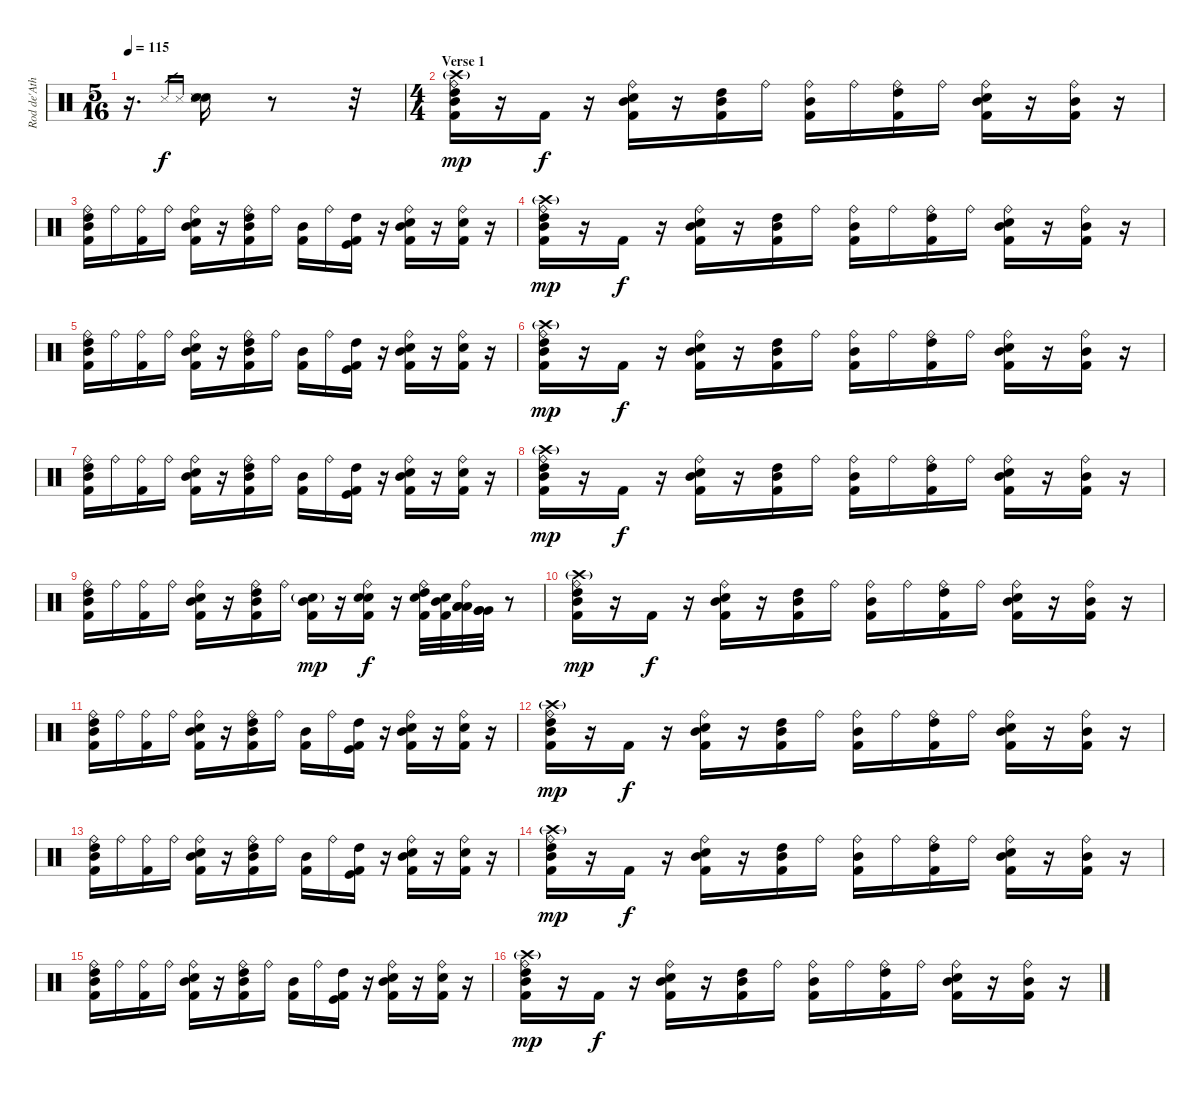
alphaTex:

\track ("Rod de'Ath" "Rod de'Ath") {instrument percussion}
\staff {score}
\articulation defaults
\ts (5 16)
\tempo 115
\clef neutral
\ks c
r.16{d dy f} "Snare (side stick) 3".16{gr} "Snare (side stick) 3".16{gr} ("Electric Snare (hit)" "Electric Snare (hit)" "Snare (side stick) 3").16 r.8 r.32 |
\ts (4 4)
\section ("" "Verse 1")
("Ride (bell)" "High Tom (hit)" "Mid Tom (hit)" "Kick (hit) 2" "Crash high (hit)"{g}).16{dy mp} r.16 "Kick (hit) 2".16{dy f} r.16 ("Ride (bell)" "Snare (hit) 2" "Mid Tom (hit)" "Kick (hit) 2").16 r.16 ("High Tom (hit)" "Mid Tom (hit)" "Kick (hit) 2").16 "Ride (bell)".16 ("Ride (bell)" "Mid Tom (hit)" "Kick (hit) 2").16 "Ride (bell)".16 ("Ride (bell)" "High Tom (hit)" "Kick (hit) 2").16 "Ride (bell)".16 ("Ride (bell)" "Snare (hit) 2" "Mid Tom (hit)" "Kick (hit) 2").16 r.16 ("Ride (bell)" "Mid Tom (hit)" "Kick (hit) 2").16 r.16 |
("Ride (bell)" "High Tom (hit)" "Mid Tom (hit)" "Kick (hit) 2").16 "Ride (bell)".16 ("Ride (bell)" "Kick (hit) 2").16 "Ride (bell)".16 ("Ride (bell)" "Snare (hit) 2" "Mid Tom (hit)" "Kick (hit) 2").16 r.16 ("Ride (bell)" "High Tom (hit)" "Mid Tom (hit)" "Kick (hit) 2").16 "Ride (bell)".16 ("Mid Tom (hit)" "Kick (hit) 2").16 "Ride (bell)".16 ("Kick (hit)" "High Tom (hit)" "Kick (hit) 2").16 r.16 ("Ride (bell)" "Snare (hit) 2" "Mid Tom (hit)" "Kick (hit) 2").16 r.16 ("Ride (bell)" "Electric Snare (hit)" "Kick (hit) 2").16 r.16 |
("Ride (bell)" "High Tom (hit)" "Mid Tom (hit)" "Kick (hit) 2" "Crash high (hit)"{g}).16{dy mp} r.16 "Kick (hit) 2".16{dy f} r.16 ("Ride (bell)" "Snare (hit) 2" "Mid Tom (hit)" "Kick (hit) 2").16 r.16 ("High Tom (hit)" "Mid Tom (hit)" "Kick (hit) 2").16 "Ride (bell)".16 ("Ride (bell)" "Mid Tom (hit)" "Kick (hit) 2").16 "Ride (bell)".16 ("Ride (bell)" "High Tom (hit)" "Kick (hit) 2").16 "Ride (bell)".16 ("Ride (bell)" "Snare (hit) 2" "Mid Tom (hit)" "Kick (hit) 2").16 r.16 ("Ride (bell)" "Mid Tom (hit)" "Kick (hit) 2").16 r.16 |
("Ride (bell)" "High Tom (hit)" "Mid Tom (hit)" "Kick (hit) 2").16 "Ride (bell)".16 ("Ride (bell)" "Kick (hit) 2").16 "Ride (bell)".16 ("Ride (bell)" "Snare (hit) 2" "Mid Tom (hit)" "Kick (hit) 2").16 r.16 ("Ride (bell)" "High Tom (hit)" "Mid Tom (hit)" "Kick (hit) 2").16 "Ride (bell)".16 ("Mid Tom (hit)" "Kick (hit) 2").16 "Ride (bell)".16 ("Kick (hit)" "High Tom (hit)" "Kick (hit) 2").16 r.16 ("Ride (bell)" "Snare (hit) 2" "Mid Tom (hit)" "Kick (hit) 2").16 r.16 ("Ride (bell)" "Electric Snare (hit)" "Kick (hit) 2").16 r.16 |
("Ride (bell)" "High Tom (hit)" "Mid Tom (hit)" "Kick (hit) 2" "Crash high (hit)"{g}).16{dy mp} r.16 "Kick (hit) 2".16{dy f} r.16 ("Ride (bell)" "Snare (hit) 2" "Mid Tom (hit)" "Kick (hit) 2").16 r.16 ("High Tom (hit)" "Mid Tom (hit)" "Kick (hit) 2").16 "Ride (bell)".16 ("Ride (bell)" "Mid Tom (hit)" "Kick (hit) 2").16 "Ride (bell)".16 ("Ride (bell)" "High Tom (hit)" "Kick (hit) 2").16 "Ride (bell)".16 ("Ride (bell)" "Snare (hit) 2" "Mid Tom (hit)" "Kick (hit) 2").16 r.16 ("Ride (bell)" "Mid Tom (hit)" "Kick (hit) 2").16 r.16 |
("Ride (bell)" "High Tom (hit)" "Mid Tom (hit)" "Kick (hit) 2").16 "Ride (bell)".16 ("Ride (bell)" "Kick (hit) 2").16 "Ride (bell)".16 ("Ride (bell)" "Snare (hit) 2" "Mid Tom (hit)" "Kick (hit) 2").16 r.16 ("Ride (bell)" "High Tom (hit)" "Mid Tom (hit)" "Kick (hit) 2").16 "Ride (bell)".16 ("Mid Tom (hit)" "Kick (hit) 2").16 "Ride (bell)".16 ("Kick (hit)" "High Tom (hit)" "Kick (hit) 2").16 r.16 ("Ride (bell)" "Snare (hit) 2" "Mid Tom (hit)" "Kick (hit) 2").16 r.16 ("Ride (bell)" "Electric Snare (hit)" "Kick (hit) 2").16 r.16 |
("Ride (bell)" "High Tom (hit)" "Mid Tom (hit)" "Kick (hit) 2" "Crash high (hit)"{g}).16{dy mp} r.16 "Kick (hit) 2".16{dy f} r.16 ("Ride (bell)" "Snare (hit) 2" "Mid Tom (hit)" "Kick (hit) 2").16 r.16 ("High Tom (hit)" "Mid Tom (hit)" "Kick (hit) 2").16 "Ride (bell)".16 ("Ride (bell)" "Mid Tom (hit)" "Kick (hit) 2").16 "Ride (bell)".16 ("Ride (bell)" "High Tom (hit)" "Kick (hit) 2").16 "Ride (bell)".16 ("Ride (bell)" "Snare (hit) 2" "Mid Tom (hit)" "Kick (hit) 2").16 r.16 ("Ride (bell)" "Mid Tom (hit)" "Kick (hit) 2").16 r.16 |
("Ride (bell)" "High Tom (hit)" "Mid Tom (hit)" "Kick (hit) 2").16 "Ride (bell)".16 ("Ride (bell)" "Kick (hit) 2").16 "Ride (bell)".16 ("Ride (bell)" "Snare (hit) 2" "Mid Tom (hit)" "Kick (hit) 2").16 r.16 ("Ride (bell)" "High Tom (hit)" "Mid Tom (hit)" "Kick (hit) 2").16 "Ride (bell)".16 ("Snare (hit) 2"{g} "Mid Tom (hit)" "Kick (hit) 2").16{dy mp} r.16 ("Ride (bell)" "Snare (hit) 2" "Snare (hit) 2" "Kick (hit) 2").16{dy f} r.16 ("Ride (bell)" "High Tom (hit)" "Electric Snare (hit)" "Kick (hit) 2").32 ("Mid Tom (hit)" "Snare (hit) 2" "Kick (hit) 2").32 ("Ride (bell)" "Low Tom (hit)" "Low Tom (hit)" "Low Tom (hit)").32 ("Very Low Tom (hit)" "Very Low Tom (hit)" "Very Low Tom (hit)").32 r.8 |
("Ride (bell)" "High Tom (hit)" "Mid Tom (hit)" "Kick (hit) 2" "Crash high (hit)"{g}).16{dy mp} r.16 "Kick (hit) 2".16{dy f} r.16 ("Ride (bell)" "Snare (hit) 2" "Mid Tom (hit)" "Kick (hit) 2").16 r.16 ("High Tom (hit)" "Mid Tom (hit)" "Kick (hit) 2").16 "Ride (bell)".16 ("Ride (bell)" "Mid Tom (hit)" "Kick (hit) 2").16 "Ride (bell)".16 ("Ride (bell)" "High Tom (hit)" "Kick (hit) 2").16 "Ride (bell)".16 ("Ride (bell)" "Snare (hit) 2" "Mid Tom (hit)" "Kick (hit) 2").16 r.16 ("Ride (bell)" "Mid Tom (hit)" "Kick (hit) 2").16 r.16 |
("Ride (bell)" "High Tom (hit)" "Mid Tom (hit)" "Kick (hit) 2").16 "Ride (bell)".16 ("Ride (bell)" "Kick (hit) 2").16 "Ride (bell)".16 ("Ride (bell)" "Snare (hit) 2" "Mid Tom (hit)" "Kick (hit) 2").16 r.16 ("Ride (bell)" "High Tom (hit)" "Mid Tom (hit)" "Kick (hit) 2").16 "Ride (bell)".16 ("Mid Tom (hit)" "Kick (hit) 2").16 "Ride (bell)".16 ("Kick (hit)" "High Tom (hit)" "Kick (hit) 2").16 r.16 ("Ride (bell)" "Snare (hit) 2" "Mid Tom (hit)" "Kick (hit) 2").16 r.16 ("Ride (bell)" "Electric Snare (hit)" "Kick (hit) 2").16 r.16 |
("Ride (bell)" "High Tom (hit)" "Mid Tom (hit)" "Kick (hit) 2" "Crash high (hit)"{g}).16{dy mp} r.16 "Kick (hit) 2".16{dy f} r.16 ("Ride (bell)" "Snare (hit) 2" "Mid Tom (hit)" "Kick (hit) 2").16 r.16 ("High Tom (hit)" "Mid Tom (hit)" "Kick (hit) 2").16 "Ride (bell)".16 ("Ride (bell)" "Mid Tom (hit)" "Kick (hit) 2").16 "Ride (bell)".16 ("Ride (bell)" "High Tom (hit)" "Kick (hit) 2").16 "Ride (bell)".16 ("Ride (bell)" "Snare (hit) 2" "Mid Tom (hit)" "Kick (hit) 2").16 r.16 ("Ride (bell)" "Mid Tom (hit)" "Kick (hit) 2").16 r.16 |
("Ride (bell)" "High Tom (hit)" "Mid Tom (hit)" "Kick (hit) 2").16 "Ride (bell)".16 ("Ride (bell)" "Kick (hit) 2").16 "Ride (bell)".16 ("Ride (bell)" "Snare (hit) 2" "Mid Tom (hit)" "Kick (hit) 2").16 r.16 ("Ride (bell)" "High Tom (hit)" "Mid Tom (hit)" "Kick (hit) 2").16 "Ride (bell)".16 ("Mid Tom (hit)" "Kick (hit) 2").16 "Ride (bell)".16 ("Kick (hit)" "High Tom (hit)" "Kick (hit) 2").16 r.16 ("Ride (bell)" "Snare (hit) 2" "Mid Tom (hit)" "Kick (hit) 2").16 r.16 ("Ride (bell)" "Electric Snare (hit)" "Kick (hit) 2").16 r.16 |
("Ride (bell)" "High Tom (hit)" "Mid Tom (hit)" "Kick (hit) 2" "Crash high (hit)"{g}).16{dy mp} r.16 "Kick (hit) 2".16{dy f} r.16 ("Ride (bell)" "Snare (hit) 2" "Mid Tom (hit)" "Kick (hit) 2").16 r.16 ("High Tom (hit)" "Mid Tom (hit)" "Kick (hit) 2").16 "Ride (bell)".16 ("Ride (bell)" "Mid Tom (hit)" "Kick (hit) 2").16 "Ride (bell)".16 ("Ride (bell)" "High Tom (hit)" "Kick (hit) 2").16 "Ride (bell)".16 ("Ride (bell)" "Snare (hit) 2" "Mid Tom (hit)" "Kick (hit) 2").16 r.16 ("Ride (bell)" "Mid Tom (hit)" "Kick (hit) 2").16 r.16 |
("Ride (bell)" "High Tom (hit)" "Mid Tom (hit)" "Kick (hit) 2").16 "Ride (bell)".16 ("Ride (bell)" "Kick (hit) 2").16 "Ride (bell)".16 ("Ride (bell)" "Snare (hit) 2" "Mid Tom (hit)" "Kick (hit) 2").16 r.16 ("Ride (bell)" "High Tom (hit)" "Mid Tom (hit)" "Kick (hit) 2").16 "Ride (bell)".16 ("Mid Tom (hit)" "Kick (hit) 2").16 "Ride (bell)".16 ("Kick (hit)" "High Tom (hit)" "Kick (hit) 2").16 r.16 ("Ride (bell)" "Snare (hit) 2" "Mid Tom (hit)" "Kick (hit) 2").16 r.16 ("Ride (bell)" "Electric Snare (hit)" "Kick (hit) 2").16 r.16 |
("Ride (bell)" "High Tom (hit)" "Mid Tom (hit)" "Kick (hit) 2" "Crash high (hit)"{g}).16{dy mp} r.16 "Kick (hit) 2".16{dy f} r.16 ("Ride (bell)" "Snare (hit) 2" "Mid Tom (hit)" "Kick (hit) 2").16 r.16 ("High Tom (hit)" "Mid Tom (hit)" "Kick (hit) 2").16 "Ride (bell)".16 ("Ride (bell)" "Mid Tom (hit)" "Kick (hit) 2").16 "Ride (bell)".16 ("Ride (bell)" "High Tom (hit)" "Kick (hit) 2").16 "Ride (bell)".16 ("Ride (bell)" "Snare (hit) 2" "Mid Tom (hit)" "Kick (hit) 2").16 r.16 ("Ride (bell)" "Mid Tom (hit)" "Kick (hit) 2").16 r.16
